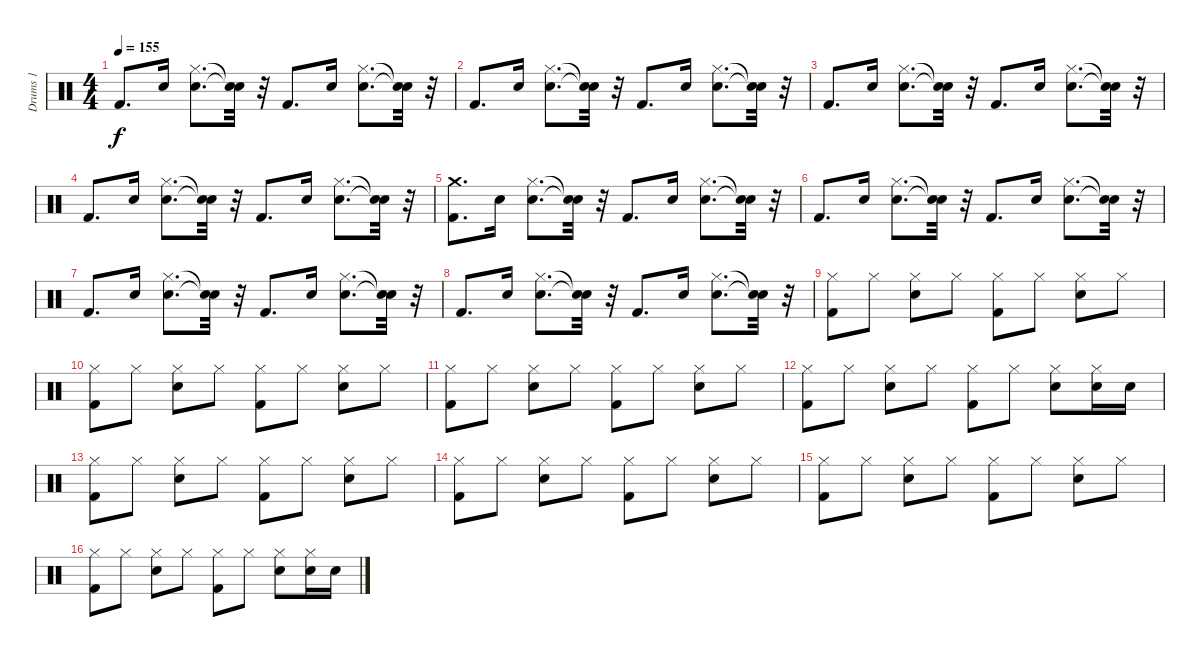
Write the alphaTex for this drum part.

\track ("Drums 1" "Drums 1") {instrument percussion}
\staff {score}
\articulation defaults
\ts (4 4)
\tempo 155
\clef neutral
\ks c "Kick (hit) 2".8{d dy f} "Snare (hit) 2".16
("Snare (hit) 2" "Hi-Hat (closed)").8{d} ("Snare (hit)"{t} "Snare (hit)"{t}).32 r.32 "Kick (hit) 2".8{d} "Snare (hit) 2".16 ("Snare (hit) 2" "Hi-Hat (closed)").8{d} ("Snare (hit)"{t} "Snare (hit)"{t}).32 r.32 |
"Kick (hit) 2".8{d} "Snare (hit) 2".16 ("Snare (hit) 2" "Hi-Hat (closed)").8{d} ("Snare (hit)"{t} "Snare (hit)"{t}).32 r.32 "Kick (hit) 2".8{d} "Snare (hit) 2".16 ("Snare (hit) 2" "Hi-Hat (closed)").8{d} ("Snare (hit)"{t} "Snare (hit)"{t}).32 r.32 |
"Kick (hit) 2".8{d} "Snare (hit) 2".16 ("Snare (hit) 2" "Hi-Hat (closed)").8{d} ("Snare (hit)"{t} "Snare (hit)"{t}).32 r.32 "Kick (hit) 2".8{d} "Snare (hit) 2".16 ("Snare (hit) 2" "Hi-Hat (closed)").8{d} ("Snare (hit)"{t} "Snare (hit)"{t}).32 r.32 |
"Kick (hit) 2".8{d} "Snare (hit) 2".16 ("Snare (hit) 2" "Hi-Hat (closed)").8{d} ("Snare (hit)"{t} "Snare (hit)"{t}).32 r.32 "Kick (hit) 2".8{d} "Snare (hit) 2".16 ("Snare (hit) 2" "Hi-Hat (closed)").8{d} ("Snare (hit)"{t} "Snare (hit)"{t}).32 r.32 |
("Kick (hit) 2" "Crash medium (hit)").8{d} "Snare (hit) 2".16 ("Snare (hit) 2" "Hi-Hat (closed)").8{d} ("Snare (hit)"{t} "Snare (hit)"{t}).32 r.32 "Kick (hit) 2".8{d} "Snare (hit) 2".16 ("Snare (hit) 2" "Hi-Hat (closed)").8{d} ("Snare (hit)"{t} "Snare (hit)"{t}).32 r.32 |
"Kick (hit) 2".8{d} "Snare (hit) 2".16 ("Snare (hit) 2" "Hi-Hat (closed)").8{d} ("Snare (hit)"{t} "Snare (hit)"{t}).32 r.32 "Kick (hit) 2".8{d} "Snare (hit) 2".16 ("Snare (hit) 2" "Hi-Hat (closed)").8{d} ("Snare (hit)"{t} "Snare (hit)"{t}).32 r.32 |
"Kick (hit) 2".8{d} "Snare (hit) 2".16 ("Snare (hit) 2" "Hi-Hat (closed)").8{d} ("Snare (hit)"{t} "Snare (hit)"{t}).32 r.32 "Kick (hit) 2".8{d} "Snare (hit) 2".16 ("Snare (hit) 2" "Hi-Hat (closed)").8{d} ("Snare (hit)"{t} "Snare (hit)"{t}).32 r.32 |
"Kick (hit) 2".8{d} "Snare (hit) 2".16 ("Snare (hit) 2" "Hi-Hat (closed)").8{d} ("Snare (hit)"{t} "Snare (hit)"{t}).32 r.32 "Kick (hit) 2".8{d} "Snare (hit) 2".16 ("Snare (hit) 2" "Hi-Hat (closed)").8{d} ("Snare (hit)"{t} "Snare (hit)"{t}).32 r.32 |
("Kick (hit) 2" "Hi-Hat (closed)").8 "Hi-Hat (closed)".8 ("Snare (hit) 2" "Hi-Hat (closed)").8 "Hi-Hat (closed)".8 ("Kick (hit) 2" "Hi-Hat (closed)").8 "Hi-Hat (closed)".8 ("Snare (hit) 2" "Hi-Hat (closed)").8 "Hi-Hat (closed)".8 |
("Kick (hit) 2" "Hi-Hat (closed)").8 "Hi-Hat (closed)".8 ("Snare (hit) 2" "Hi-Hat (closed)").8 "Hi-Hat (closed)".8 ("Kick (hit) 2" "Hi-Hat (closed)").8 "Hi-Hat (closed)".8 ("Snare (hit) 2" "Hi-Hat (closed)").8 "Hi-Hat (closed)".8 |
("Kick (hit) 2" "Hi-Hat (closed)").8 "Hi-Hat (closed)".8 ("Snare (hit) 2" "Hi-Hat (closed)").8 "Hi-Hat (closed)".8 ("Kick (hit) 2" "Hi-Hat (closed)").8 "Hi-Hat (closed)".8 ("Snare (hit) 2" "Hi-Hat (closed)").8 "Hi-Hat (closed)".8 |
("Kick (hit) 2" "Hi-Hat (closed)").8 "Hi-Hat (closed)".8 ("Snare (hit) 2" "Hi-Hat (closed)").8 "Hi-Hat (closed)".8 ("Kick (hit) 2" "Hi-Hat (closed)").8 "Hi-Hat (closed)".8 ("Snare (hit) 2" "Hi-Hat (closed)").8 ("Snare (hit) 2" "Hi-Hat (closed)").16 "Snare (hit) 2".16 |
("Kick (hit) 2" "Hi-Hat (closed)").8 "Hi-Hat (closed)".8 ("Snare (hit) 2" "Hi-Hat (closed)").8 "Hi-Hat (closed)".8 ("Kick (hit) 2" "Hi-Hat (closed)").8 "Hi-Hat (closed)".8 ("Snare (hit) 2" "Hi-Hat (closed)").8 "Hi-Hat (closed)".8 |
("Kick (hit) 2" "Hi-Hat (closed)").8 "Hi-Hat (closed)".8 ("Snare (hit) 2" "Hi-Hat (closed)").8 "Hi-Hat (closed)".8 ("Kick (hit) 2" "Hi-Hat (closed)").8 "Hi-Hat (closed)".8 ("Snare (hit) 2" "Hi-Hat (closed)").8 "Hi-Hat (closed)".8 |
("Kick (hit) 2" "Hi-Hat (closed)").8 "Hi-Hat (closed)".8 ("Snare (hit) 2" "Hi-Hat (closed)").8 "Hi-Hat (closed)".8 ("Kick (hit) 2" "Hi-Hat (closed)").8 "Hi-Hat (closed)".8 ("Snare (hit) 2" "Hi-Hat (closed)").8 "Hi-Hat (closed)".8 |
("Kick (hit) 2" "Hi-Hat (closed)").8 "Hi-Hat (closed)".8 ("Snare (hit) 2" "Hi-Hat (closed)").8 "Hi-Hat (closed)".8 ("Kick (hit) 2" "Hi-Hat (closed)").8 "Hi-Hat (closed)".8 ("Snare (hit) 2" "Hi-Hat (closed)").8 ("Snare (hit) 2" "Hi-Hat (closed)").16 "Snare (hit) 2".16
